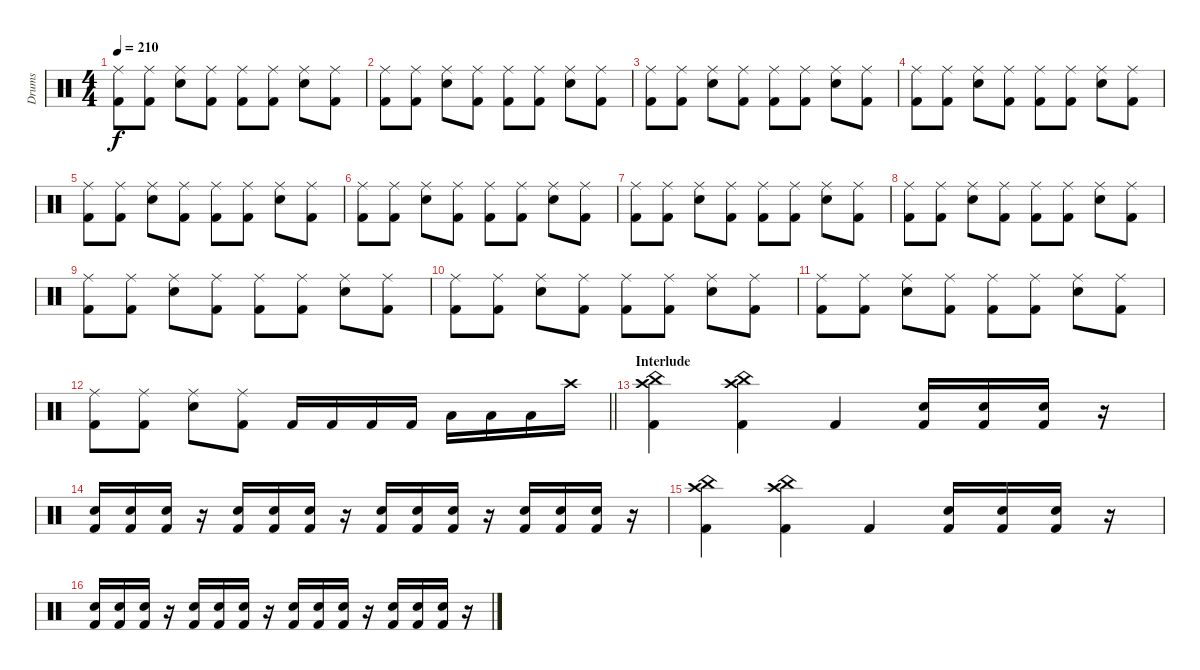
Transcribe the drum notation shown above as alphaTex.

\track ("Drums" "Drums") {instrument percussion}
\staff {score}
\articulation defaults
\ts (4 4)
\tempo 210
\clef neutral
\ks c
("Ride (middle)" "Kick (hit) 2").8{dy f} ("Ride (middle)" "Kick (hit) 2").8 ("Ride (middle)" "Electric Snare (hit)").8 ("Ride (middle)" "Kick (hit) 2").8 ("Ride (middle)" "Kick (hit) 2").8 ("Ride (middle)" "Kick (hit) 2").8 ("Ride (middle)" "Electric Snare (hit)").8 ("Ride (middle)" "Kick (hit) 2").8 |
("Ride (middle)" "Kick (hit) 2").8 ("Ride (middle)" "Kick (hit) 2").8 ("Ride (middle)" "Electric Snare (hit)").8 ("Ride (middle)" "Kick (hit) 2").8 ("Ride (middle)" "Kick (hit) 2").8 ("Ride (middle)" "Kick (hit) 2").8 ("Ride (middle)" "Electric Snare (hit)").8 ("Ride (middle)" "Kick (hit) 2").8 |
("Ride (middle)" "Kick (hit) 2").8 ("Ride (middle)" "Kick (hit) 2").8 ("Ride (middle)" "Electric Snare (hit)").8 ("Ride (middle)" "Kick (hit) 2").8 ("Ride (middle)" "Kick (hit) 2").8 ("Ride (middle)" "Kick (hit) 2").8 ("Ride (middle)" "Electric Snare (hit)").8 ("Ride (middle)" "Kick (hit) 2").8 |
("Ride (middle)" "Kick (hit) 2").8 ("Ride (middle)" "Kick (hit) 2").8 ("Ride (middle)" "Electric Snare (hit)").8 ("Ride (middle)" "Kick (hit) 2").8 ("Ride (middle)" "Kick (hit) 2").8 ("Ride (middle)" "Kick (hit) 2").8 ("Ride (middle)" "Electric Snare (hit)").8 ("Ride (middle)" "Kick (hit) 2").8 |
("Ride (middle)" "Kick (hit) 2").8 ("Ride (middle)" "Kick (hit) 2").8 ("Ride (middle)" "Electric Snare (hit)").8 ("Ride (middle)" "Kick (hit) 2").8 ("Ride (middle)" "Kick (hit) 2").8 ("Ride (middle)" "Kick (hit) 2").8 ("Ride (middle)" "Electric Snare (hit)").8 ("Ride (middle)" "Kick (hit) 2").8 |
("Ride (middle)" "Kick (hit) 2").8 ("Ride (middle)" "Kick (hit) 2").8 ("Ride (middle)" "Electric Snare (hit)").8 ("Ride (middle)" "Kick (hit) 2").8 ("Ride (middle)" "Kick (hit) 2").8 ("Ride (middle)" "Kick (hit) 2").8 ("Ride (middle)" "Electric Snare (hit)").8 ("Ride (middle)" "Kick (hit) 2").8 |
("Ride (middle)" "Kick (hit) 2").8 ("Ride (middle)" "Kick (hit) 2").8 ("Ride (middle)" "Electric Snare (hit)").8 ("Ride (middle)" "Kick (hit) 2").8 ("Ride (middle)" "Kick (hit) 2").8 ("Ride (middle)" "Kick (hit) 2").8 ("Ride (middle)" "Electric Snare (hit)").8 ("Ride (middle)" "Kick (hit) 2").8 |
("Ride (middle)" "Kick (hit) 2").8 ("Ride (middle)" "Kick (hit) 2").8 ("Ride (middle)" "Electric Snare (hit)").8 ("Ride (middle)" "Kick (hit) 2").8 ("Ride (middle)" "Kick (hit) 2").8 ("Ride (middle)" "Kick (hit) 2").8 ("Ride (middle)" "Electric Snare (hit)").8 ("Ride (middle)" "Kick (hit) 2").8 |
("Ride (middle)" "Kick (hit) 2").8 ("Ride (middle)" "Kick (hit) 2").8 ("Ride (middle)" "Electric Snare (hit)").8 ("Ride (middle)" "Kick (hit) 2").8 ("Ride (middle)" "Kick (hit) 2").8 ("Ride (middle)" "Kick (hit) 2").8 ("Ride (middle)" "Electric Snare (hit)").8 ("Ride (middle)" "Kick (hit) 2").8 |
("Ride (middle)" "Kick (hit) 2").8 ("Ride (middle)" "Kick (hit) 2").8 ("Ride (middle)" "Electric Snare (hit)").8 ("Ride (middle)" "Kick (hit) 2").8 ("Ride (middle)" "Kick (hit) 2").8 ("Ride (middle)" "Kick (hit) 2").8 ("Ride (middle)" "Electric Snare (hit)").8 ("Ride (middle)" "Kick (hit) 2").8 |
("Ride (middle)" "Kick (hit) 2").8 ("Ride (middle)" "Kick (hit) 2").8 ("Ride (middle)" "Electric Snare (hit)").8 ("Ride (middle)" "Kick (hit) 2").8 ("Ride (middle)" "Kick (hit) 2").8 ("Ride (middle)" "Kick (hit) 2").8 ("Ride (middle)" "Electric Snare (hit)").8 ("Ride (middle)" "Kick (hit) 2").8 |
\barLineRight lightlight
("Ride (middle)" "Kick (hit) 2").8 ("Ride (middle)" "Kick (hit) 2").8 ("Ride (middle)" "Electric Snare (hit)").8 ("Ride (middle)" "Kick (hit) 2").8 "Kick (hit) 2".16 "Kick (hit) 2".16 "Kick (hit) 2".16 "Kick (hit) 2".16 "Low Tom (hit)".16 "Low Tom (hit)".16 "Low Tom (hit)".16 "Crash high (hit)".16 |
\section ("" "Interlude")
("Crash high (hit)" "China (hit)" "Kick (hit) 2").4 ("Crash high (hit)" "China (hit)" "Kick (hit) 2").4 "Kick (hit) 2".4 ("Electric Snare (hit)" "Kick (hit) 2").16 ("Electric Snare (hit)" "Kick (hit) 2").16 ("Electric Snare (hit)" "Kick (hit) 2").16 r.16 |
("Electric Snare (hit)" "Kick (hit) 2").16 ("Electric Snare (hit)" "Kick (hit) 2").16 ("Electric Snare (hit)" "Kick (hit) 2").16 r.16 ("Electric Snare (hit)" "Kick (hit) 2").16 ("Electric Snare (hit)" "Kick (hit) 2").16 ("Electric Snare (hit)" "Kick (hit) 2").16 r.16 ("Electric Snare (hit)" "Kick (hit) 2").16 ("Electric Snare (hit)" "Kick (hit) 2").16 ("Electric Snare (hit)" "Kick (hit) 2").16 r.16 ("Electric Snare (hit)" "Kick (hit) 2").16 ("Electric Snare (hit)" "Kick (hit) 2").16 ("Electric Snare (hit)" "Kick (hit) 2").16 r.16 |
("Crash high (hit)" "China (hit)" "Kick (hit) 2").4 ("Crash high (hit)" "China (hit)" "Kick (hit) 2").4 "Kick (hit) 2".4 ("Electric Snare (hit)" "Kick (hit) 2").16 ("Electric Snare (hit)" "Kick (hit) 2").16 ("Electric Snare (hit)" "Kick (hit) 2").16 r.16 |
("Electric Snare (hit)" "Kick (hit) 2").16 ("Electric Snare (hit)" "Kick (hit) 2").16 ("Electric Snare (hit)" "Kick (hit) 2").16 r.16 ("Electric Snare (hit)" "Kick (hit) 2").16 ("Electric Snare (hit)" "Kick (hit) 2").16 ("Electric Snare (hit)" "Kick (hit) 2").16 r.16 ("Electric Snare (hit)" "Kick (hit) 2").16 ("Electric Snare (hit)" "Kick (hit) 2").16 ("Electric Snare (hit)" "Kick (hit) 2").16 r.16 ("Electric Snare (hit)" "Kick (hit) 2").16 ("Electric Snare (hit)" "Kick (hit) 2").16 ("Electric Snare (hit)" "Kick (hit) 2").16 r.16
